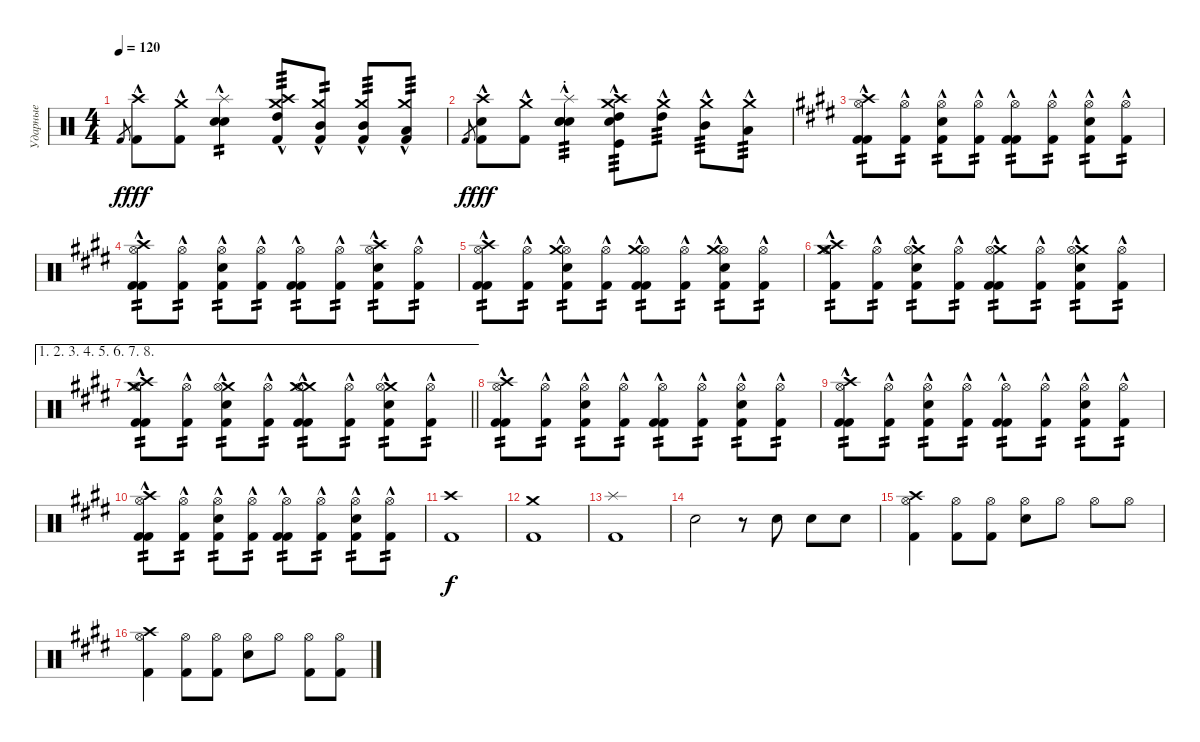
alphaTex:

\track ("Ударные" "Ударные") {instrument percussion}
\staff {score}
\articulation defaults
\ts (4 4)
\tempo 120
\clef neutral
\ks c "Kick (hit) 2".8{gr dy f}
("Crash high (hit)"{hac} "Kick (hit) 2"{hac}).8{dy fff} ("Crash medium (hit)"{hac} "Kick (hit) 2"{hac}).8 ("Splash (hit)"{hac} "Electric Snare (hit)"{hac} "Electric Snare (hit)"{hac}).4{tp 2} ("High Tom (hit)" "Crash high (hit)"{hac} "Crash medium (hit)"{hac} "Kick (hit) 2"{hac}).8{tp 3} ("Mid Tom (hit)" "Crash medium (hit)"{hac} "Kick (hit) 2"{hac}).8{tp 2} ("Mid Tom (hit)" "Crash medium (hit)"{hac} "Kick (hit) 2"{hac}).8{tp 3} ("Low Tom (hit)" "Crash medium (hit)"{hac} "Kick (hit) 2"{hac}).8{tp 3} |
"Kick (hit) 2".8{gr dy f} ("Snare (hit)" "Crash high (hit)"{hac} "Kick (hit) 2"{hac}).8{dy fff} ("Crash medium (hit)"{hac} "Kick (hit) 2"{hac}).8 ("Electric Snare (hit)" "Splash (hit)"{hac} "Electric Snare (hit)"{hac} "Electric Snare (hit)"{hac st}).4{tp 3} ("Electric Snare (hit)" "Kick (hit)" "Crash high (hit)"{hac} "Crash medium (hit)"{hac} "High Tom (hit)"{hac}).8{tp 3} ("Crash medium (hit)"{hac} "High Tom (hit)"{hac}).8{tp 3} ("Crash medium (hit)"{hac} "Mid Tom (hit)"{hac}).8{tp 3} ("Crash medium (hit)"{hac} "Low Tom (hit)"{hac}).8{tp 3} |
\ks c#minor
("Kick (hit) 2"{hac} "Hi-Hat (open)"{hac} "Crash high (hit)"{hac} "Kick (hit) 2"{hac}).8{tp 2} ("Kick (hit) 2"{hac} "Hi-Hat (open)"{hac}).8{tp 2} ("Kick (hit) 2"{hac} "Hi-Hat (open)"{hac} "Electric Snare (hit)"{hac}).8{tp 2} ("Kick (hit) 2"{hac} "Hi-Hat (open)"{hac}).8{tp 2} ("Kick (hit) 2"{hac} "Hi-Hat (open)"{hac} "Kick (hit) 2"{hac}).8{tp 2} ("Kick (hit) 2"{hac} "Hi-Hat (open)"{hac}).8{tp 2} ("Kick (hit) 2"{hac} "Hi-Hat (open)"{hac} "Electric Snare (hit)"{hac}).8{tp 2} ("Kick (hit) 2"{hac} "Hi-Hat (open)"{hac}).8{tp 2} |
("Kick (hit) 2"{hac} "Hi-Hat (open)"{hac} "Crash high (hit)"{hac} "Kick (hit) 2"{hac}).8{tp 2} ("Kick (hit) 2"{hac} "Hi-Hat (open)"{hac}).8{tp 2} ("Kick (hit) 2"{hac} "Hi-Hat (open)"{hac} "Electric Snare (hit)"{hac}).8{tp 2} ("Kick (hit) 2"{hac} "Hi-Hat (open)"{hac}).8{tp 2} ("Kick (hit) 2"{hac} "Hi-Hat (open)"{hac} "Kick (hit) 2"{hac}).8{tp 2} ("Kick (hit) 2"{hac} "Hi-Hat (open)"{hac}).8{tp 2} ("Kick (hit) 2"{hac} "Hi-Hat (open)"{hac} "Electric Snare (hit)"{hac} "Crash high (hit)"{hac}).8{tp 2} ("Kick (hit) 2"{hac} "Hi-Hat (open)"{hac}).8{tp 2} |
("Kick (hit) 2"{hac} "Hi-Hat (open)"{hac} "Crash high (hit)"{hac} "Kick (hit) 2"{hac}).8{tp 2} ("Kick (hit) 2"{hac} "Hi-Hat (open)"{hac}).8{tp 2} ("Kick (hit) 2"{hac} "Hi-Hat (open)"{hac} "Electric Snare (hit)"{hac} "Crash medium (hit)"{hac}).8{tp 2} ("Kick (hit) 2"{hac} "Hi-Hat (open)"{hac}).8{tp 2} ("Kick (hit) 2"{hac} "Hi-Hat (open)"{hac} "Kick (hit) 2"{hac} "Crash medium (hit)"{hac}).8{tp 2} ("Kick (hit) 2"{hac} "Hi-Hat (open)"{hac}).8{tp 2} ("Kick (hit) 2"{hac} "Hi-Hat (open)"{hac} "Electric Snare (hit)"{hac} "Crash medium (hit)"{hac}).8{tp 2} ("Kick (hit) 2"{hac} "Hi-Hat (open)"{hac}).8{tp 2} |
("Crash medium (hit)"{hac} "Kick (hit) 2"{hac} "Hi-Hat (open)"{hac} "Crash high (hit)"{hac} "Crash medium (hit)"{hac}).8{tp 2} ("Kick (hit) 2"{hac} "Hi-Hat (open)"{hac}).8{tp 2} ("Crash medium (hit)"{hac} "Kick (hit) 2"{hac} "Hi-Hat (open)"{hac} "Electric Snare (hit)"{hac}).8{tp 2} ("Kick (hit) 2"{hac} "Hi-Hat (open)"{hac}).8{tp 2} ("Crash medium (hit)"{hac} "Kick (hit) 2"{hac} "Hi-Hat (open)"{hac} "Kick (hit) 2"{hac}).8{tp 2} ("Kick (hit) 2"{hac} "Hi-Hat (open)"{hac}).8{tp 2} ("Crash medium (hit)"{hac} "Kick (hit) 2"{hac} "Hi-Hat (open)"{hac} "Electric Snare (hit)"{hac}).8{tp 2} ("Kick (hit) 2"{hac} "Hi-Hat (open)"{hac}).8{tp 2} |
\ae (1 2 3 4 5 6 7 8)
\barLineRight lightlight
("Crash medium (hit)"{hac} "Kick (hit) 2"{hac} "Hi-Hat (open)"{hac} "Crash high (hit)"{hac} "Kick (hit) 2"{hac}).8{tp 2} ("Kick (hit) 2"{hac} "Hi-Hat (open)"{hac}).8{tp 2} ("Crash medium (hit)"{hac} "Kick (hit) 2"{hac} "Hi-Hat (open)"{hac} "Electric Snare (hit)"{hac}).8{tp 2} ("Kick (hit) 2"{hac} "Hi-Hat (open)"{hac}).8{tp 2} ("Crash medium (hit)"{hac} "Crash medium (hit)" "Kick (hit) 2"{hac} "Hi-Hat (open)"{hac} "Kick (hit) 2"{hac}).8{tp 2} ("Kick (hit) 2"{hac} "Hi-Hat (open)"{hac}).8{tp 2} ("Crash medium (hit)"{hac} "Kick (hit) 2"{hac} "Hi-Hat (open)"{hac} "Electric Snare (hit)"{hac}).8{tp 2} ("Kick (hit) 2"{hac} "Hi-Hat (open)"{hac}).8{tp 2} |
("Kick (hit) 2"{hac} "Hi-Hat (open)"{hac} "Crash high (hit)"{hac} "Kick (hit) 2"{hac}).8{tp 2} ("Kick (hit) 2"{hac} "Hi-Hat (open)"{hac}).8{tp 2} ("Kick (hit) 2"{hac} "Hi-Hat (open)"{hac} "Electric Snare (hit)"{hac}).8{tp 2} ("Kick (hit) 2"{hac} "Hi-Hat (open)"{hac}).8{tp 2} ("Kick (hit) 2"{hac} "Hi-Hat (open)"{hac} "Kick (hit) 2"{hac}).8{tp 2} ("Kick (hit) 2"{hac} "Hi-Hat (open)"{hac}).8{tp 2} ("Kick (hit) 2"{hac} "Hi-Hat (open)"{hac} "Electric Snare (hit)"{hac}).8{tp 2} ("Kick (hit) 2"{hac} "Hi-Hat (open)"{hac}).8{tp 2} |
("Kick (hit) 2"{hac} "Hi-Hat (open)"{hac} "Crash high (hit)"{hac} "Kick (hit) 2"{hac}).8{tp 2} ("Kick (hit) 2"{hac} "Hi-Hat (open)"{hac}).8{tp 2} ("Kick (hit) 2"{hac} "Hi-Hat (open)"{hac} "Electric Snare (hit)"{hac}).8{tp 2} ("Kick (hit) 2"{hac} "Hi-Hat (open)"{hac}).8{tp 2} ("Kick (hit) 2"{hac} "Hi-Hat (open)"{hac} "Kick (hit) 2"{hac}).8{tp 2} ("Kick (hit) 2"{hac} "Hi-Hat (open)"{hac}).8{tp 2} ("Kick (hit) 2"{hac} "Hi-Hat (open)"{hac} "Electric Snare (hit)"{hac}).8{tp 2} ("Kick (hit) 2"{hac} "Hi-Hat (open)"{hac}).8{tp 2} |
("Kick (hit) 2"{hac} "Hi-Hat (open)"{hac} "Crash high (hit)"{hac} "Kick (hit) 2"{hac}).8{tp 2} ("Kick (hit) 2"{hac} "Hi-Hat (open)"{hac}).8{tp 2} ("Kick (hit) 2"{hac} "Hi-Hat (open)"{hac} "Electric Snare (hit)"{hac}).8{tp 2} ("Kick (hit) 2"{hac} "Hi-Hat (open)"{hac}).8{tp 2} ("Kick (hit) 2"{hac} "Hi-Hat (open)"{hac} "Kick (hit) 2"{hac}).8{tp 2} ("Kick (hit) 2"{hac} "Hi-Hat (open)"{hac}).8{tp 2} ("Kick (hit) 2"{hac} "Hi-Hat (open)"{hac} "Electric Snare (hit)"{hac}).8{tp 2} ("Kick (hit) 2"{hac} "Hi-Hat (open)"{hac}).8{tp 2} |
("Crash high (hit)" "Kick (hit) 2").1{dy f} |
("Crash medium (hit)" "Kick (hit) 2").1 |
("Splash (hit)" "Kick (hit) 2").1 |
"Snare (hit)".2 r.8 "Electric Snare (hit)".8{volume 8} "Electric Snare (hit)".8{volume 12} "Electric Snare (hit)".8{volume 16} |
("Crash high (hit)" "Hi-Hat (open)" "Kick (hit) 2").4 ("Hi-Hat (open)" "Kick (hit) 2").8 ("Hi-Hat (open)" "Kick (hit) 2").8 ("Hi-Hat (open)" "Electric Snare (hit)").8 "Hi-Hat (open)".8 "Hi-Hat (open)".8 "Hi-Hat (open)".8 |
("Crash high (hit)" "Hi-Hat (open)" "Kick (hit) 2").4 ("Hi-Hat (open)" "Kick (hit) 2").8 ("Hi-Hat (open)" "Kick (hit) 2").8 ("Hi-Hat (open)" "Electric Snare (hit)").8 "Hi-Hat (open)".8 ("Hi-Hat (open)" "Kick (hit) 2").8 ("Hi-Hat (open)" "Kick (hit) 2").8
